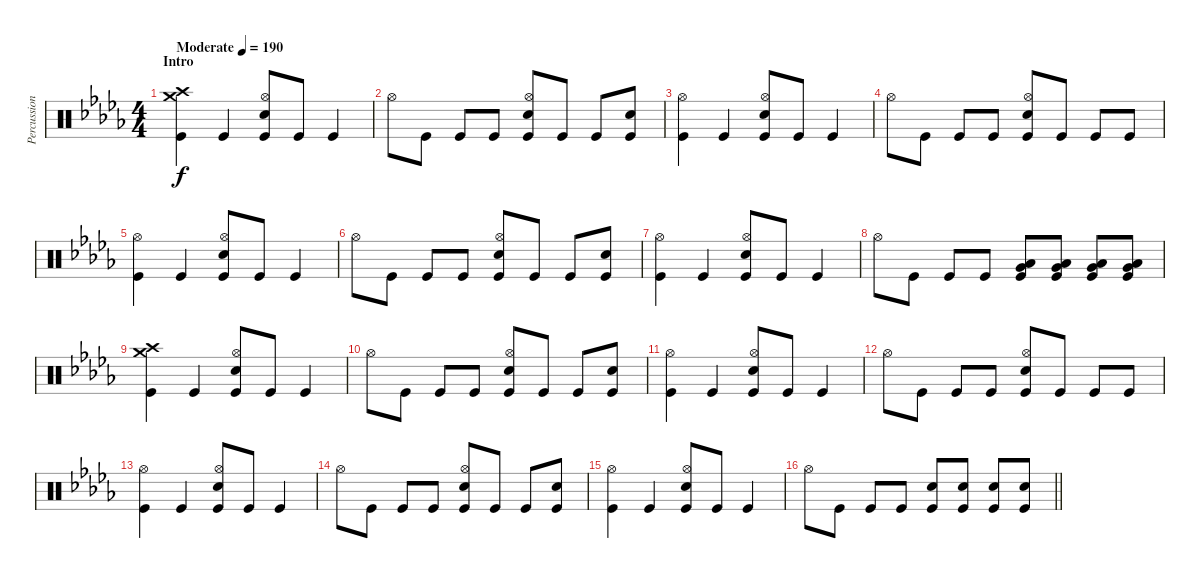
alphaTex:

\track ("Percussion" "Percussion") {instrument percussion}
\staff {score}
\articulation defaults
\ts (4 4)
\section ("" "Intro")
\tempo (190 "Moderate")
\clef neutral
\ks db
("Crash high (hit)" "Crash medium (hit)" "Kick (hit)").4{dy f} "Kick (hit)".4 ("Hi-Hat (open)" "Electric Snare (hit)" "Kick (hit)").8 "Kick (hit)".8 "Kick (hit)".4 |
"Hi-Hat (open)".8 "Kick (hit)".8 "Kick (hit)".8 "Kick (hit)".8 ("Hi-Hat (open)" "Electric Snare (hit)" "Kick (hit)").8 "Kick (hit)".8 "Kick (hit)".8 ("Electric Snare (hit)" "Kick (hit)").8 |
("Hi-Hat (open)" "Kick (hit)").4 "Kick (hit)".4 ("Hi-Hat (open)" "Electric Snare (hit)" "Kick (hit)").8 "Kick (hit)".8 "Kick (hit)".4 |
"Hi-Hat (open)".8 "Kick (hit)".8 "Kick (hit)".8 "Kick (hit)".8 ("Hi-Hat (open)" "Electric Snare (hit)" "Kick (hit)").8 "Kick (hit)".8 "Kick (hit)".8 "Kick (hit)".8 |
("Hi-Hat (open)" "Kick (hit)").4 "Kick (hit)".4 ("Hi-Hat (open)" "Electric Snare (hit)" "Kick (hit)").8 "Kick (hit)".8 "Kick (hit)".4 |
"Hi-Hat (open)".8 "Kick (hit)".8 "Kick (hit)".8 "Kick (hit)".8 ("Hi-Hat (open)" "Electric Snare (hit)" "Kick (hit)").8 "Kick (hit)".8 "Kick (hit)".8 ("Electric Snare (hit)" "Kick (hit)").8 |
("Hi-Hat (open)" "Kick (hit)").4 "Kick (hit)".4 ("Hi-Hat (open)" "Electric Snare (hit)" "Kick (hit)").8 "Kick (hit)".8 "Kick (hit)".4 |
"Hi-Hat (open)".8 "Kick (hit)".8 "Kick (hit)".8 "Kick (hit)".8 ("Low Tom (hit)" "Very Low Tom (hit)" "Kick (hit)").8 ("Low Tom (hit)" "Very Low Tom (hit)" "Kick (hit)").8 ("Low Tom (hit)" "Very Low Tom (hit)" "Kick (hit)").8 ("Low Tom (hit)" "Very Low Tom (hit)" "Kick (hit)").8 |
("Crash high (hit)" "Crash medium (hit)" "Kick (hit)").4 "Kick (hit)".4 ("Hi-Hat (open)" "Electric Snare (hit)" "Kick (hit)").8 "Kick (hit)".8 "Kick (hit)".4 |
"Hi-Hat (open)".8 "Kick (hit)".8 "Kick (hit)".8 "Kick (hit)".8 ("Hi-Hat (open)" "Electric Snare (hit)" "Kick (hit)").8 "Kick (hit)".8 "Kick (hit)".8 ("Electric Snare (hit)" "Kick (hit)").8 |
("Hi-Hat (open)" "Kick (hit)").4 "Kick (hit)".4 ("Hi-Hat (open)" "Electric Snare (hit)" "Kick (hit)").8 "Kick (hit)".8 "Kick (hit)".4 |
"Hi-Hat (open)".8 "Kick (hit)".8 "Kick (hit)".8 "Kick (hit)".8 ("Hi-Hat (open)" "Electric Snare (hit)" "Kick (hit)").8 "Kick (hit)".8 "Kick (hit)".8 "Kick (hit)".8 |
("Hi-Hat (open)" "Kick (hit)").4 "Kick (hit)".4 ("Hi-Hat (open)" "Electric Snare (hit)" "Kick (hit)").8 "Kick (hit)".8 "Kick (hit)".4 |
"Hi-Hat (open)".8 "Kick (hit)".8 "Kick (hit)".8 "Kick (hit)".8 ("Hi-Hat (open)" "Electric Snare (hit)" "Kick (hit)").8 "Kick (hit)".8 "Kick (hit)".8 ("Electric Snare (hit)" "Kick (hit)").8 |
("Hi-Hat (open)" "Kick (hit)").4 "Kick (hit)".4 ("Hi-Hat (open)" "Electric Snare (hit)" "Kick (hit)").8 "Kick (hit)".8 "Kick (hit)".4 |
\barLineRight lightlight "Hi-Hat (open)".8 "Kick (hit)".8 "Kick (hit)".8 "Kick (hit)".8
("Electric Snare (hit)" "Kick (hit)").8 ("Electric Snare (hit)" "Kick (hit)").8 ("Electric Snare (hit)" "Kick (hit)").8 ("Electric Snare (hit)" "Kick (hit)").8
